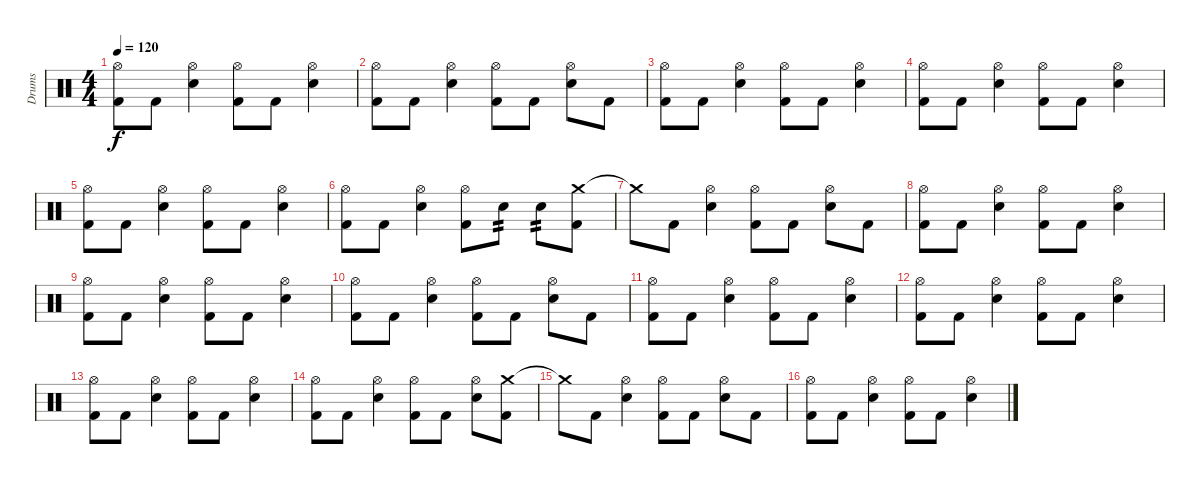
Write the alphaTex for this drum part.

\track ("Drums" "Drums") {instrument percussion}
\staff {score}
\articulation defaults
\ts (4 4)
\tempo 120
\clef neutral
\ks c
("Hi-Hat (open)" "Kick (hit) 2").8{dy f} "Kick (hit) 2".8 ("Hi-Hat (open)" "Electric Snare (hit)").4 ("Hi-Hat (open)" "Kick (hit) 2").8 "Kick (hit) 2".8 ("Hi-Hat (open)" "Electric Snare (hit)").4 |
("Hi-Hat (open)" "Kick (hit) 2").8 "Kick (hit) 2".8 ("Hi-Hat (open)" "Electric Snare (hit)").4 ("Hi-Hat (open)" "Kick (hit) 2").8 "Kick (hit) 2".8 ("Hi-Hat (open)" "Electric Snare (hit)").8 "Kick (hit) 2".8 |
("Hi-Hat (open)" "Kick (hit) 2").8 "Kick (hit) 2".8 ("Hi-Hat (open)" "Electric Snare (hit)").4 ("Hi-Hat (open)" "Kick (hit) 2").8 "Kick (hit) 2".8 ("Hi-Hat (open)" "Electric Snare (hit)").4 |
("Hi-Hat (open)" "Kick (hit) 2").8 "Kick (hit) 2".8 ("Hi-Hat (open)" "Electric Snare (hit)").4 ("Hi-Hat (open)" "Kick (hit) 2").8 "Kick (hit) 2".8 ("Hi-Hat (open)" "Electric Snare (hit)").4 |
("Hi-Hat (open)" "Kick (hit) 2").8 "Kick (hit) 2".8 ("Hi-Hat (open)" "Electric Snare (hit)").4 ("Hi-Hat (open)" "Kick (hit) 2").8 "Kick (hit) 2".8 ("Hi-Hat (open)" "Electric Snare (hit)").4 |
("Hi-Hat (open)" "Kick (hit) 2").8 "Kick (hit) 2".8 ("Hi-Hat (open)" "Electric Snare (hit)").4 ("Hi-Hat (open)" "Kick (hit) 2").8 "Electric Snare (hit)".8{tp 2} "Electric Snare (hit)".8{tp 2} ("Crash medium (hit)" "Kick (hit) 2").8 |
"Crash medium (hit)"{t}.8 "Kick (hit) 2".8 ("Hi-Hat (open)" "Electric Snare (hit)").4 ("Hi-Hat (open)" "Kick (hit) 2").8 "Kick (hit) 2".8 ("Hi-Hat (open)" "Electric Snare (hit)").8 "Kick (hit) 2".8 |
("Hi-Hat (open)" "Kick (hit) 2").8 "Kick (hit) 2".8 ("Hi-Hat (open)" "Electric Snare (hit)").4 ("Hi-Hat (open)" "Kick (hit) 2").8 "Kick (hit) 2".8 ("Hi-Hat (open)" "Electric Snare (hit)").4 |
("Hi-Hat (open)" "Kick (hit) 2").8 "Kick (hit) 2".8 ("Hi-Hat (open)" "Electric Snare (hit)").4 ("Hi-Hat (open)" "Kick (hit) 2").8 "Kick (hit) 2".8 ("Hi-Hat (open)" "Electric Snare (hit)").4 |
("Hi-Hat (open)" "Kick (hit) 2").8 "Kick (hit) 2".8 ("Hi-Hat (open)" "Electric Snare (hit)").4 ("Hi-Hat (open)" "Kick (hit) 2").8 "Kick (hit) 2".8 ("Hi-Hat (open)" "Electric Snare (hit)").8 "Kick (hit) 2".8 |
("Hi-Hat (open)" "Kick (hit) 2").8 "Kick (hit) 2".8 ("Hi-Hat (open)" "Electric Snare (hit)").4 ("Hi-Hat (open)" "Kick (hit) 2").8 "Kick (hit) 2".8 ("Hi-Hat (open)" "Electric Snare (hit)").4 |
("Hi-Hat (open)" "Kick (hit) 2").8 "Kick (hit) 2".8 ("Hi-Hat (open)" "Electric Snare (hit)").4 ("Hi-Hat (open)" "Kick (hit) 2").8 "Kick (hit) 2".8 ("Hi-Hat (open)" "Electric Snare (hit)").4 |
("Hi-Hat (open)" "Kick (hit) 2").8 "Kick (hit) 2".8 ("Hi-Hat (open)" "Electric Snare (hit)").4 ("Hi-Hat (open)" "Kick (hit) 2").8 "Kick (hit) 2".8 ("Hi-Hat (open)" "Electric Snare (hit)").4 |
("Hi-Hat (open)" "Kick (hit) 2").8 "Kick (hit) 2".8 ("Hi-Hat (open)" "Electric Snare (hit)").4 ("Hi-Hat (open)" "Kick (hit) 2").8 "Kick (hit) 2".8 ("Hi-Hat (open)" "Electric Snare (hit)").8 ("Crash medium (hit)" "Kick (hit) 2").8 |
"Crash medium (hit)"{t}.8 "Kick (hit) 2".8 ("Hi-Hat (open)" "Electric Snare (hit)").4 ("Hi-Hat (open)" "Kick (hit) 2").8 "Kick (hit) 2".8 ("Hi-Hat (open)" "Electric Snare (hit)").8 "Kick (hit) 2".8 |
("Hi-Hat (open)" "Kick (hit) 2").8 "Kick (hit) 2".8 ("Hi-Hat (open)" "Electric Snare (hit)").4 ("Hi-Hat (open)" "Kick (hit) 2").8 "Kick (hit) 2".8 ("Hi-Hat (open)" "Electric Snare (hit)").4
